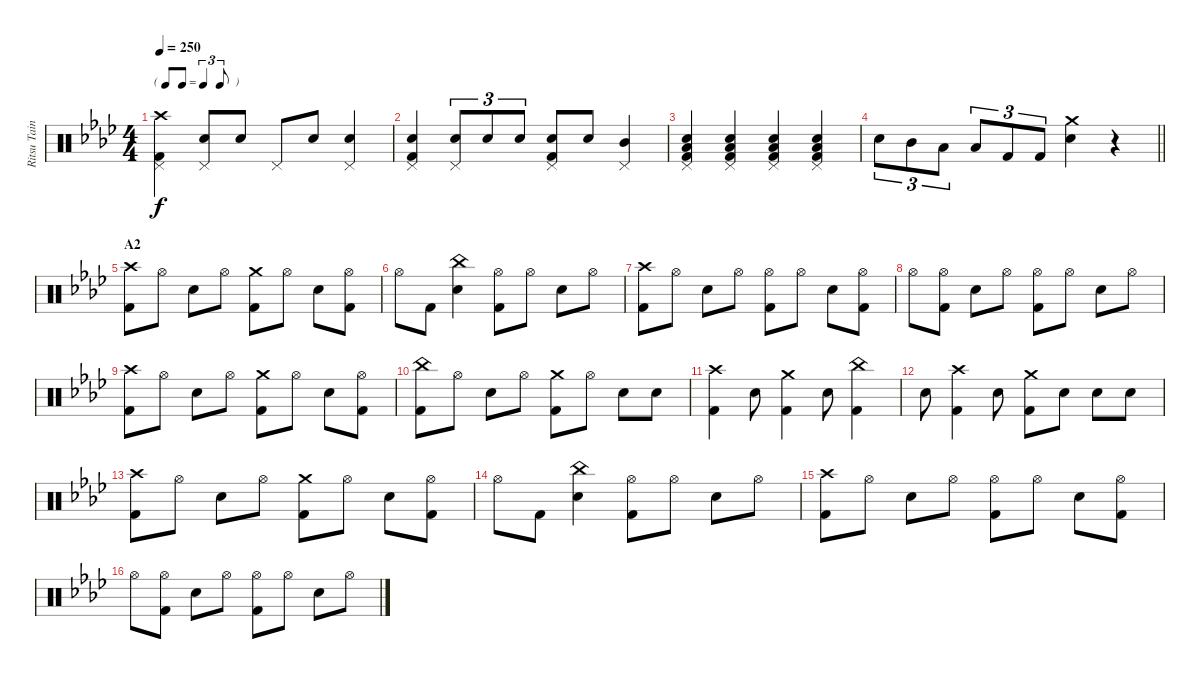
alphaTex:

\track ("Ritsu Tainaka" "Ritsu Tain") {instrument percussion}
\staff {score}
\articulation defaults
\ts (4 4)
\tf triplet8th
\tempo 250
\clef neutral
\ks ab
("Crash high (hit)" "Pedal Hi-Hat (hit)" "Kick (hit) 2").4{dy f} ("Pedal Hi-Hat (hit)" "Electric Snare (hit)").8 "Electric Snare (hit)".8 "Pedal Hi-Hat (hit)".8 "Electric Snare (hit)".8 ("Pedal Hi-Hat (hit)" "Electric Snare (hit)").4 |
("Pedal Hi-Hat (hit)" "Electric Snare (hit)" "Kick (hit) 2").4 ("Pedal Hi-Hat (hit)" "Electric Snare (hit)").8{tu (3 2)} "Electric Snare (hit)".8{tu (3 2)} "Electric Snare (hit)".8{tu (3 2)} ("Pedal Hi-Hat (hit)" "Electric Snare (hit)" "Kick (hit) 2").8 "Electric Snare (hit)".8 ("Pedal Hi-Hat (hit)" "Mid Tom (hit)").4 |
("Pedal Hi-Hat (hit)" "Electric Snare (hit)" "Low Floor Tom (hit)" "Kick (hit) 2").4 ("Pedal Hi-Hat (hit)" "Electric Snare (hit)" "Low Floor Tom (hit)" "Kick (hit) 2").4 ("Pedal Hi-Hat (hit)" "Electric Snare (hit)" "Low Floor Tom (hit)" "Kick (hit) 2").4 ("Pedal Hi-Hat (hit)" "Electric Snare (hit)" "Low Floor Tom (hit)" "Kick (hit) 2").4 |
\barLineRight lightlight "Electric Snare (hit)".8{tu (3 2)} "Mid Tom (hit)".8{tu (3 2)} "Low Floor Tom (hit)".8{tu (3 2)} "Low Floor Tom (hit)".8{tu (3 2)} "Kick (hit) 2".8{tu (3 2)} "Kick (hit) 2".8{tu (3 2)}
("Crash medium (hit)" "Electric Snare (hit)").4 r.4 |
\section ("" "A2")
("Crash high (hit)" "Kick (hit) 2").8 "Hi-Hat (open)".8 "Electric Snare (hit)".8 "Hi-Hat (open)".8 ("Crash medium (hit)" "Kick (hit) 2").8 "Hi-Hat (open)".8 "Electric Snare (hit)".8 ("Hi-Hat (open)" "Kick (hit) 2").8 |
"Hi-Hat (open)".8 "Kick (hit) 2".8 ("China (hit)" "Electric Snare (hit)").4 ("Hi-Hat (open)" "Kick (hit) 2").8 "Hi-Hat (open)".8 "Electric Snare (hit)".8 "Hi-Hat (open)".8 |
("Crash high (hit)" "Kick (hit) 2").8 "Hi-Hat (open)".8 "Electric Snare (hit)".8 "Hi-Hat (open)".8 ("Hi-Hat (open)" "Kick (hit) 2").8 "Hi-Hat (open)".8 "Electric Snare (hit)".8 ("Hi-Hat (open)" "Kick (hit) 2").8 |
"Hi-Hat (open)".8 ("Hi-Hat (open)" "Kick (hit) 2").8 "Electric Snare (hit)".8 "Hi-Hat (open)".8 ("Hi-Hat (open)" "Kick (hit) 2").8 "Hi-Hat (open)".8 "Electric Snare (hit)".8 "Hi-Hat (open)".8 |
("Crash high (hit)" "Kick (hit) 2").8 "Hi-Hat (open)".8 "Electric Snare (hit)".8 "Hi-Hat (open)".8 ("Crash medium (hit)" "Kick (hit) 2").8 "Hi-Hat (open)".8 "Electric Snare (hit)".8 ("Hi-Hat (open)" "Kick (hit) 2").8 |
("China (hit)" "Kick (hit) 2").8 "Hi-Hat (open)".8 "Electric Snare (hit)".8 "Hi-Hat (open)".8 ("Crash medium (hit)" "Kick (hit) 2").8 "Hi-Hat (open)".8 "Electric Snare (hit)".8 "Electric Snare (hit)".8 |
("Crash high (hit)" "Kick (hit) 2").4 "Electric Snare (hit)".8 ("Crash medium (hit)" "Kick (hit) 2").4 "Electric Snare (hit)".8 ("China (hit)" "Kick (hit) 2").4 |
"Electric Snare (hit)".8 ("Crash high (hit)" "Kick (hit) 2").4 "Electric Snare (hit)".8 ("Crash medium (hit)" "Kick (hit) 2").8 "Electric Snare (hit)".8 "Electric Snare (hit)".8 "Electric Snare (hit)".8 |
("Crash high (hit)" "Kick (hit) 2").8 "Hi-Hat (open)".8 "Electric Snare (hit)".8 "Hi-Hat (open)".8 ("Crash medium (hit)" "Kick (hit) 2").8 "Hi-Hat (open)".8 "Electric Snare (hit)".8 ("Hi-Hat (open)" "Kick (hit) 2").8 |
"Hi-Hat (open)".8 "Kick (hit) 2".8 ("China (hit)" "Electric Snare (hit)").4 ("Hi-Hat (open)" "Kick (hit) 2").8 "Hi-Hat (open)".8 "Electric Snare (hit)".8 "Hi-Hat (open)".8 |
("Crash high (hit)" "Kick (hit) 2").8 "Hi-Hat (open)".8 "Electric Snare (hit)".8 "Hi-Hat (open)".8 ("Hi-Hat (open)" "Kick (hit) 2").8 "Hi-Hat (open)".8 "Electric Snare (hit)".8 ("Hi-Hat (open)" "Kick (hit) 2").8 |
"Hi-Hat (open)".8 ("Hi-Hat (open)" "Kick (hit) 2").8 "Electric Snare (hit)".8 "Hi-Hat (open)".8 ("Hi-Hat (open)" "Kick (hit) 2").8 "Hi-Hat (open)".8 "Electric Snare (hit)".8 "Hi-Hat (open)".8
